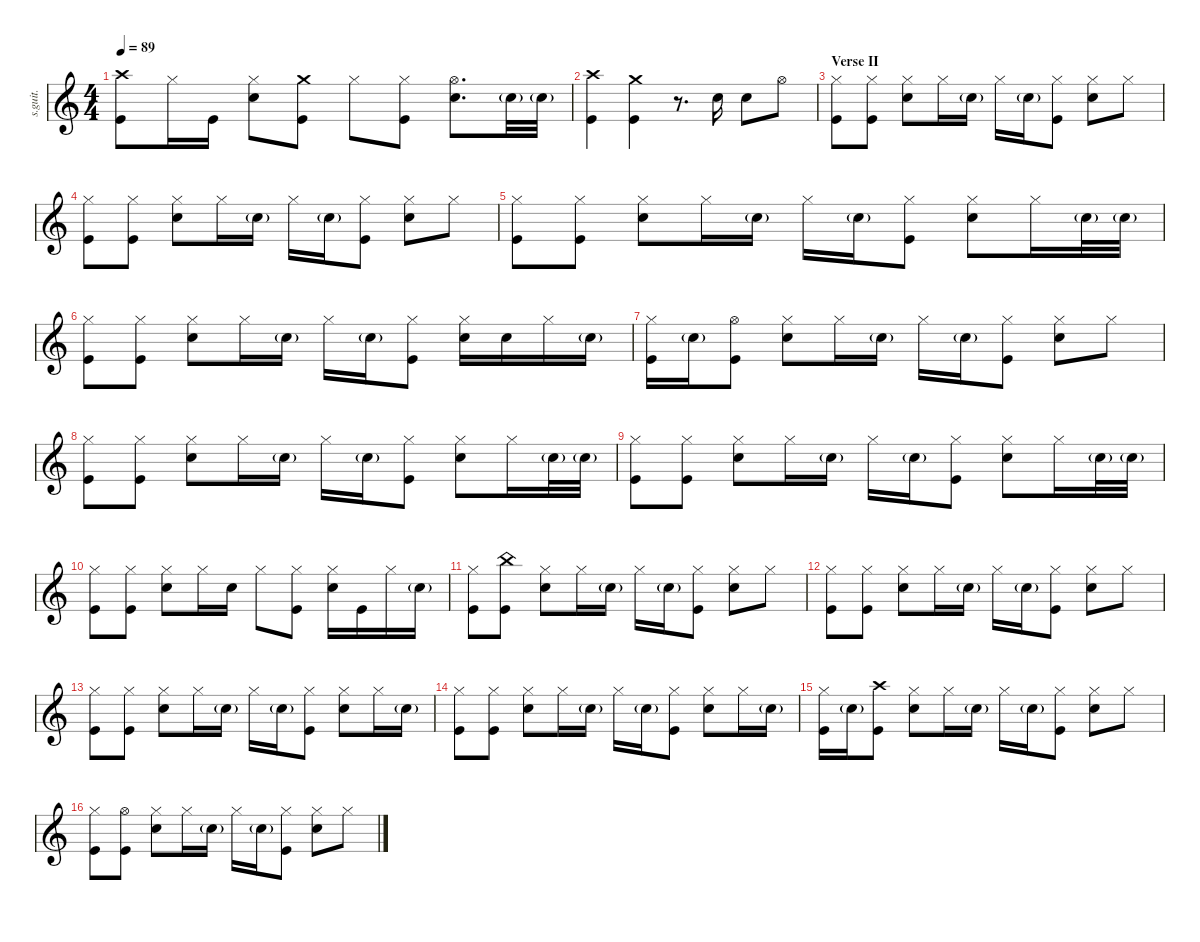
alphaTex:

\defaultSystemsLayout 4
\hideDynamics
\bracketExtendMode nobrackets
\track ("Chad Smith" "s.guit.") {instrument percussion}
\staff {score}
\articulation defaults
\ts (4 4)
\tempo 89
\clef g2
\ks c
("Crash high (hit)" "Kick (hit)").8{lyrics (0 "") lyrics (1 "") lyrics (2 "") lyrics (3 "") lyrics (4 "") dy f} "Hi-Hat (closed)".16{lyrics (0 "") lyrics (1 "") lyrics (2 "") lyrics (3 "") lyrics (4 "")} "Kick (hit)".16{lyrics (0 "") lyrics (1 "") lyrics (2 "") lyrics (3 "") lyrics (4 "")} ("Hi-Hat (closed)" "Snare (hit) 2").8{lyrics (0 "") lyrics (1 "") lyrics (2 "") lyrics (3 "") lyrics (4 "")} ("Crash medium (hit)" "Kick (hit)").8{lyrics (0 "") lyrics (1 "") lyrics (2 "") lyrics (3 "") lyrics (4 "")} "Hi-Hat (closed)".8{lyrics (0 "") lyrics (1 "") lyrics (2 "") lyrics (3 "") lyrics (4 "") dy fff} ("Hi-Hat (closed)" "Kick (hit)").8{lyrics (0 "") lyrics (1 "") lyrics (2 "") lyrics (3 "") lyrics (4 "") dy f} ("Hi-Hat (open)" "Snare (hit) 2").8{d lyrics (0 "") lyrics (1 "") lyrics (2 "") lyrics (3 "") lyrics (4 "")} "Snare (hit) 2"{g}.32{lyrics (0 "") lyrics (1 "") lyrics (2 "") lyrics (3 "") lyrics (4 "") dy ppp} "Snare (hit) 2"{g}.32{lyrics (0 "") lyrics (1 "") lyrics (2 "") lyrics (3 "") lyrics (4 "")} |
("Crash high (hit)" "Kick (hit)").4{lyrics (0 "") lyrics (1 "") lyrics (2 "") lyrics (3 "") lyrics (4 "") dy f} ("Crash medium (hit)" "Kick (hit)").4{lyrics (0 "") lyrics (1 "") lyrics (2 "") lyrics (3 "") lyrics (4 "")} r.8{d} "Snare (hit) 2".16{lyrics (0 "") lyrics (1 "") lyrics (2 "") lyrics (3 "") lyrics (4 "")} "Snare (hit) 2".8{lyrics (0 "") lyrics (1 "") lyrics (2 "") lyrics (3 "") lyrics (4 "")} "Hi-Hat (open)".8{lyrics (0 "") lyrics (1 "") lyrics (2 "") lyrics (3 "") lyrics (4 "")} |
\section ("" "Verse II")
("Hi-Hat (closed)" "Kick (hit)").8{lyrics (0 "") lyrics (1 "") lyrics (2 "") lyrics (3 "") lyrics (4 "")} ("Hi-Hat (closed)" "Kick (hit)").8{lyrics (0 "") lyrics (1 "") lyrics (2 "") lyrics (3 "") lyrics (4 "")} ("Hi-Hat (closed)" "Snare (hit) 2").8{lyrics (0 "") lyrics (1 "") lyrics (2 "") lyrics (3 "") lyrics (4 "")} "Hi-Hat (closed)".16{lyrics (0 "") lyrics (1 "") lyrics (2 "") lyrics (3 "") lyrics (4 "")} "Snare (hit) 2"{g}.16{lyrics (0 "") lyrics (1 "") lyrics (2 "") lyrics (3 "") lyrics (4 "") dy ppp} "Hi-Hat (closed)".16{lyrics (0 "") lyrics (1 "") lyrics (2 "") lyrics (3 "") lyrics (4 "") dy fff} "Snare (hit) 2"{g}.16{lyrics (0 "") lyrics (1 "") lyrics (2 "") lyrics (3 "") lyrics (4 "") dy ppp} ("Hi-Hat (closed)" "Kick (hit)").8{lyrics (0 "") lyrics (1 "") lyrics (2 "") lyrics (3 "") lyrics (4 "") dy f} ("Hi-Hat (closed)" "Snare (hit) 2").8{lyrics (0 "") lyrics (1 "") lyrics (2 "") lyrics (3 "") lyrics (4 "")} "Hi-Hat (closed)".8{lyrics (0 "") lyrics (1 "") lyrics (2 "") lyrics (3 "") lyrics (4 "")} |
("Hi-Hat (closed)" "Kick (hit)").8{lyrics (0 "") lyrics (1 "") lyrics (2 "") lyrics (3 "") lyrics (4 "")} ("Hi-Hat (closed)" "Kick (hit)").8{lyrics (0 "") lyrics (1 "") lyrics (2 "") lyrics (3 "") lyrics (4 "")} ("Hi-Hat (closed)" "Snare (hit) 2").8{lyrics (0 "") lyrics (1 "") lyrics (2 "") lyrics (3 "") lyrics (4 "")} "Hi-Hat (closed)".16{lyrics (0 "") lyrics (1 "") lyrics (2 "") lyrics (3 "") lyrics (4 "")} "Snare (hit) 2"{g}.16{lyrics (0 "") lyrics (1 "") lyrics (2 "") lyrics (3 "") lyrics (4 "") dy ppp} "Hi-Hat (closed)".16{lyrics (0 "") lyrics (1 "") lyrics (2 "") lyrics (3 "") lyrics (4 "") dy fff} "Snare (hit) 2"{g}.16{lyrics (0 "") lyrics (1 "") lyrics (2 "") lyrics (3 "") lyrics (4 "") dy ppp} ("Hi-Hat (closed)" "Kick (hit)").8{lyrics (0 "") lyrics (1 "") lyrics (2 "") lyrics (3 "") lyrics (4 "") dy f} ("Hi-Hat (closed)" "Snare (hit) 2").8{lyrics (0 "") lyrics (1 "") lyrics (2 "") lyrics (3 "") lyrics (4 "")} "Hi-Hat (closed)".8{lyrics (0 "") lyrics (1 "") lyrics (2 "") lyrics (3 "") lyrics (4 "")} |
("Hi-Hat (closed)" "Kick (hit)").8{lyrics (0 "") lyrics (1 "") lyrics (2 "") lyrics (3 "") lyrics (4 "")} ("Hi-Hat (closed)" "Kick (hit)").8{lyrics (0 "") lyrics (1 "") lyrics (2 "") lyrics (3 "") lyrics (4 "")} ("Hi-Hat (closed)" "Snare (hit) 2").8{lyrics (0 "") lyrics (1 "") lyrics (2 "") lyrics (3 "") lyrics (4 "")} "Hi-Hat (closed)".16{lyrics (0 "") lyrics (1 "") lyrics (2 "") lyrics (3 "") lyrics (4 "")} "Snare (hit) 2"{g}.16{lyrics (0 "") lyrics (1 "") lyrics (2 "") lyrics (3 "") lyrics (4 "") dy ppp} "Hi-Hat (closed)".16{lyrics (0 "") lyrics (1 "") lyrics (2 "") lyrics (3 "") lyrics (4 "") dy fff} "Snare (hit) 2"{g}.16{lyrics (0 "") lyrics (1 "") lyrics (2 "") lyrics (3 "") lyrics (4 "") dy ppp} ("Hi-Hat (closed)" "Kick (hit)").8{lyrics (0 "") lyrics (1 "") lyrics (2 "") lyrics (3 "") lyrics (4 "") dy f} ("Hi-Hat (closed)" "Snare (hit) 2").8{lyrics (0 "") lyrics (1 "") lyrics (2 "") lyrics (3 "") lyrics (4 "")} "Hi-Hat (closed)".16{lyrics (0 "") lyrics (1 "") lyrics (2 "") lyrics (3 "") lyrics (4 "")} "Snare (hit) 2"{g}.32{lyrics (0 "") lyrics (1 "") lyrics (2 "") lyrics (3 "") lyrics (4 "") dy ppp} "Snare (hit) 2"{g}.32{lyrics (0 "") lyrics (1 "") lyrics (2 "") lyrics (3 "") lyrics (4 "")} |
("Hi-Hat (closed)" "Kick (hit)").8{lyrics (0 "") lyrics (1 "") lyrics (2 "") lyrics (3 "") lyrics (4 "") dy f} ("Hi-Hat (closed)" "Kick (hit)").8{lyrics (0 "") lyrics (1 "") lyrics (2 "") lyrics (3 "") lyrics (4 "")} ("Hi-Hat (closed)" "Snare (hit) 2").8{lyrics (0 "") lyrics (1 "") lyrics (2 "") lyrics (3 "") lyrics (4 "")} "Hi-Hat (closed)".16{lyrics (0 "") lyrics (1 "") lyrics (2 "") lyrics (3 "") lyrics (4 "")} "Snare (hit) 2"{g}.16{lyrics (0 "") lyrics (1 "") lyrics (2 "") lyrics (3 "") lyrics (4 "") dy ppp} "Hi-Hat (closed)".16{lyrics (0 "") lyrics (1 "") lyrics (2 "") lyrics (3 "") lyrics (4 "") dy fff} "Snare (hit) 2"{g}.16{lyrics (0 "") lyrics (1 "") lyrics (2 "") lyrics (3 "") lyrics (4 "") dy ppp} ("Hi-Hat (closed)" "Kick (hit)").8{lyrics (0 "") lyrics (1 "") lyrics (2 "") lyrics (3 "") lyrics (4 "") dy f} ("Hi-Hat (closed)" "Snare (hit) 2").16{lyrics (0 "") lyrics (1 "") lyrics (2 "") lyrics (3 "") lyrics (4 "")} "Snare (hit) 2".16{lyrics (0 "") lyrics (1 "") lyrics (2 "") lyrics (3 "") lyrics (4 "")} "Hi-Hat (closed)".16{lyrics (0 "") lyrics (1 "") lyrics (2 "") lyrics (3 "") lyrics (4 "")} "Snare (hit) 2"{g}.16{lyrics (0 "") lyrics (1 "") lyrics (2 "") lyrics (3 "") lyrics (4 "") dy ppp} |
("Hi-Hat (closed)" "Kick (hit)").16{lyrics (0 "") lyrics (1 "") lyrics (2 "") lyrics (3 "") lyrics (4 "") dy f} "Snare (hit) 2"{g}.16{lyrics (0 "") lyrics (1 "") lyrics (2 "") lyrics (3 "") lyrics (4 "") dy ppp} ("Hi-Hat (open)" "Kick (hit)").8{lyrics (0 "") lyrics (1 "") lyrics (2 "") lyrics (3 "") lyrics (4 "") dy f} ("Hi-Hat (closed)" "Snare (hit) 2").8{lyrics (0 "") lyrics (1 "") lyrics (2 "") lyrics (3 "") lyrics (4 "")} "Hi-Hat (closed)".16{lyrics (0 "") lyrics (1 "") lyrics (2 "") lyrics (3 "") lyrics (4 "")} "Snare (hit) 2"{g}.16{lyrics (0 "") lyrics (1 "") lyrics (2 "") lyrics (3 "") lyrics (4 "") dy ppp} "Hi-Hat (closed)".16{lyrics (0 "") lyrics (1 "") lyrics (2 "") lyrics (3 "") lyrics (4 "") dy fff} "Snare (hit) 2"{g}.16{lyrics (0 "") lyrics (1 "") lyrics (2 "") lyrics (3 "") lyrics (4 "") dy ppp} ("Hi-Hat (closed)" "Kick (hit)").8{lyrics (0 "") lyrics (1 "") lyrics (2 "") lyrics (3 "") lyrics (4 "") dy f} ("Hi-Hat (closed)" "Snare (hit) 2").8{lyrics (0 "") lyrics (1 "") lyrics (2 "") lyrics (3 "") lyrics (4 "")} "Hi-Hat (closed)".8{lyrics (0 "") lyrics (1 "") lyrics (2 "") lyrics (3 "") lyrics (4 "")} |
("Hi-Hat (closed)" "Kick (hit)").8{lyrics (0 "") lyrics (1 "") lyrics (2 "") lyrics (3 "") lyrics (4 "")} ("Hi-Hat (closed)" "Kick (hit)").8{lyrics (0 "") lyrics (1 "") lyrics (2 "") lyrics (3 "") lyrics (4 "")} ("Hi-Hat (closed)" "Snare (hit) 2").8{lyrics (0 "") lyrics (1 "") lyrics (2 "") lyrics (3 "") lyrics (4 "")} "Hi-Hat (closed)".16{lyrics (0 "") lyrics (1 "") lyrics (2 "") lyrics (3 "") lyrics (4 "")} "Snare (hit) 2"{g}.16{lyrics (0 "") lyrics (1 "") lyrics (2 "") lyrics (3 "") lyrics (4 "") dy ppp} "Hi-Hat (closed)".16{lyrics (0 "") lyrics (1 "") lyrics (2 "") lyrics (3 "") lyrics (4 "") dy fff} "Snare (hit) 2"{g}.16{lyrics (0 "") lyrics (1 "") lyrics (2 "") lyrics (3 "") lyrics (4 "") dy ppp} ("Hi-Hat (closed)" "Kick (hit)").8{lyrics (0 "") lyrics (1 "") lyrics (2 "") lyrics (3 "") lyrics (4 "") dy f} ("Hi-Hat (closed)" "Snare (hit) 2").8{lyrics (0 "") lyrics (1 "") lyrics (2 "") lyrics (3 "") lyrics (4 "")} "Hi-Hat (closed)".16{lyrics (0 "") lyrics (1 "") lyrics (2 "") lyrics (3 "") lyrics (4 "")} "Snare (hit) 2"{g}.32{lyrics (0 "") lyrics (1 "") lyrics (2 "") lyrics (3 "") lyrics (4 "") dy ppp} "Snare (hit) 2"{g}.32{lyrics (0 "") lyrics (1 "") lyrics (2 "") lyrics (3 "") lyrics (4 "")} |
("Hi-Hat (closed)" "Kick (hit)").8{lyrics (0 "") lyrics (1 "") lyrics (2 "") lyrics (3 "") lyrics (4 "") dy f} ("Hi-Hat (closed)" "Kick (hit)").8{lyrics (0 "") lyrics (1 "") lyrics (2 "") lyrics (3 "") lyrics (4 "")} ("Hi-Hat (closed)" "Snare (hit) 2").8{lyrics (0 "") lyrics (1 "") lyrics (2 "") lyrics (3 "") lyrics (4 "")} "Hi-Hat (closed)".16{lyrics (0 "") lyrics (1 "") lyrics (2 "") lyrics (3 "") lyrics (4 "")} "Snare (hit) 2"{g}.16{lyrics (0 "") lyrics (1 "") lyrics (2 "") lyrics (3 "") lyrics (4 "") dy ppp} "Hi-Hat (closed)".16{lyrics (0 "") lyrics (1 "") lyrics (2 "") lyrics (3 "") lyrics (4 "") dy fff} "Snare (hit) 2"{g}.16{lyrics (0 "") lyrics (1 "") lyrics (2 "") lyrics (3 "") lyrics (4 "") dy ppp} ("Hi-Hat (closed)" "Kick (hit)").8{lyrics (0 "") lyrics (1 "") lyrics (2 "") lyrics (3 "") lyrics (4 "") dy f} ("Hi-Hat (closed)" "Snare (hit) 2").8{lyrics (0 "") lyrics (1 "") lyrics (2 "") lyrics (3 "") lyrics (4 "")} "Hi-Hat (closed)".16{lyrics (0 "") lyrics (1 "") lyrics (2 "") lyrics (3 "") lyrics (4 "")} "Snare (hit) 2"{g}.32{lyrics (0 "") lyrics (1 "") lyrics (2 "") lyrics (3 "") lyrics (4 "") dy ppp} "Snare (hit) 2"{g}.32{lyrics (0 "") lyrics (1 "") lyrics (2 "") lyrics (3 "") lyrics (4 "")} |
("Hi-Hat (closed)" "Kick (hit)").8{lyrics (0 "") lyrics (1 "") lyrics (2 "") lyrics (3 "") lyrics (4 "") dy f} ("Hi-Hat (closed)" "Kick (hit)").8{lyrics (0 "") lyrics (1 "") lyrics (2 "") lyrics (3 "") lyrics (4 "")} ("Hi-Hat (closed)" "Snare (hit) 2").8{lyrics (0 "") lyrics (1 "") lyrics (2 "") lyrics (3 "") lyrics (4 "")} "Hi-Hat (closed)".16{lyrics (0 "") lyrics (1 "") lyrics (2 "") lyrics (3 "") lyrics (4 "")} "Snare (hit) 2".16{lyrics (0 "") lyrics (1 "") lyrics (2 "") lyrics (3 "") lyrics (4 "")} "Hi-Hat (closed)".8{lyrics (0 "") lyrics (1 "") lyrics (2 "") lyrics (3 "") lyrics (4 "") dy fff} ("Hi-Hat (closed)" "Kick (hit)").8{lyrics (0 "") lyrics (1 "") lyrics (2 "") lyrics (3 "") lyrics (4 "") dy f} ("Hi-Hat (closed)" "Snare (hit) 2").16{lyrics (0 "") lyrics (1 "") lyrics (2 "") lyrics (3 "") lyrics (4 "")} "Kick (hit)".16{lyrics (0 "") lyrics (1 "") lyrics (2 "") lyrics (3 "") lyrics (4 "")} "Hi-Hat (closed)".16{lyrics (0 "") lyrics (1 "") lyrics (2 "") lyrics (3 "") lyrics (4 "")} "Snare (hit) 2"{g}.16{lyrics (0 "") lyrics (1 "") lyrics (2 "") lyrics (3 "") lyrics (4 "") dy ppp} |
("Hi-Hat (closed)" "Kick (hit)").8{lyrics (0 "") lyrics (1 "") lyrics (2 "") lyrics (3 "") lyrics (4 "") dy f} ("China (hit)" "Kick (hit)").8{lyrics (0 "") lyrics (1 "") lyrics (2 "") lyrics (3 "") lyrics (4 "")} ("Hi-Hat (closed)" "Snare (hit) 2").8{lyrics (0 "") lyrics (1 "") lyrics (2 "") lyrics (3 "") lyrics (4 "")} "Hi-Hat (closed)".16{lyrics (0 "") lyrics (1 "") lyrics (2 "") lyrics (3 "") lyrics (4 "")} "Snare (hit) 2"{g}.16{lyrics (0 "") lyrics (1 "") lyrics (2 "") lyrics (3 "") lyrics (4 "") dy ppp} "Hi-Hat (closed)".16{lyrics (0 "") lyrics (1 "") lyrics (2 "") lyrics (3 "") lyrics (4 "") dy fff} "Snare (hit) 2"{g}.16{lyrics (0 "") lyrics (1 "") lyrics (2 "") lyrics (3 "") lyrics (4 "") dy ppp} ("Hi-Hat (closed)" "Kick (hit)").8{lyrics (0 "") lyrics (1 "") lyrics (2 "") lyrics (3 "") lyrics (4 "") dy f} ("Hi-Hat (closed)" "Snare (hit) 2").8{lyrics (0 "") lyrics (1 "") lyrics (2 "") lyrics (3 "") lyrics (4 "")} "Hi-Hat (closed)".8{lyrics (0 "") lyrics (1 "") lyrics (2 "") lyrics (3 "") lyrics (4 "")} |
("Hi-Hat (closed)" "Kick (hit)").8{lyrics (0 "") lyrics (1 "") lyrics (2 "") lyrics (3 "") lyrics (4 "")} ("Hi-Hat (closed)" "Kick (hit)").8{lyrics (0 "") lyrics (1 "") lyrics (2 "") lyrics (3 "") lyrics (4 "")} ("Hi-Hat (closed)" "Snare (hit) 2").8{lyrics (0 "") lyrics (1 "") lyrics (2 "") lyrics (3 "") lyrics (4 "")} "Hi-Hat (closed)".16{lyrics (0 "") lyrics (1 "") lyrics (2 "") lyrics (3 "") lyrics (4 "")} "Snare (hit) 2"{g}.16{lyrics (0 "") lyrics (1 "") lyrics (2 "") lyrics (3 "") lyrics (4 "") dy ppp} "Hi-Hat (closed)".16{lyrics (0 "") lyrics (1 "") lyrics (2 "") lyrics (3 "") lyrics (4 "") dy fff} "Snare (hit) 2"{g}.16{lyrics (0 "") lyrics (1 "") lyrics (2 "") lyrics (3 "") lyrics (4 "") dy ppp} ("Hi-Hat (closed)" "Kick (hit)").8{lyrics (0 "") lyrics (1 "") lyrics (2 "") lyrics (3 "") lyrics (4 "") dy f} ("Hi-Hat (closed)" "Snare (hit) 2").8{lyrics (0 "") lyrics (1 "") lyrics (2 "") lyrics (3 "") lyrics (4 "")} "Hi-Hat (closed)".8{lyrics (0 "") lyrics (1 "") lyrics (2 "") lyrics (3 "") lyrics (4 "")} |
("Hi-Hat (closed)" "Kick (hit)").8{lyrics (0 "") lyrics (1 "") lyrics (2 "") lyrics (3 "") lyrics (4 "")} ("Hi-Hat (closed)" "Kick (hit)").8{lyrics (0 "") lyrics (1 "") lyrics (2 "") lyrics (3 "") lyrics (4 "")} ("Hi-Hat (closed)" "Snare (hit) 2").8{lyrics (0 "") lyrics (1 "") lyrics (2 "") lyrics (3 "") lyrics (4 "")} "Hi-Hat (closed)".16{lyrics (0 "") lyrics (1 "") lyrics (2 "") lyrics (3 "") lyrics (4 "")} "Snare (hit) 2"{g}.16{lyrics (0 "") lyrics (1 "") lyrics (2 "") lyrics (3 "") lyrics (4 "") dy ppp} "Hi-Hat (closed)".16{lyrics (0 "") lyrics (1 "") lyrics (2 "") lyrics (3 "") lyrics (4 "") dy fff} "Snare (hit) 2"{g}.16{lyrics (0 "") lyrics (1 "") lyrics (2 "") lyrics (3 "") lyrics (4 "") dy ppp} ("Hi-Hat (closed)" "Kick (hit)").8{lyrics (0 "") lyrics (1 "") lyrics (2 "") lyrics (3 "") lyrics (4 "") dy f} ("Hi-Hat (closed)" "Snare (hit) 2").8{lyrics (0 "") lyrics (1 "") lyrics (2 "") lyrics (3 "") lyrics (4 "")} "Hi-Hat (closed)".16{lyrics (0 "") lyrics (1 "") lyrics (2 "") lyrics (3 "") lyrics (4 "")} "Snare (hit) 2"{g}.16{lyrics (0 "") lyrics (1 "") lyrics (2 "") lyrics (3 "") lyrics (4 "") dy ppp} |
("Hi-Hat (closed)" "Kick (hit)").8{lyrics (0 "") lyrics (1 "") lyrics (2 "") lyrics (3 "") lyrics (4 "") dy f} ("Hi-Hat (closed)" "Kick (hit)").8{lyrics (0 "") lyrics (1 "") lyrics (2 "") lyrics (3 "") lyrics (4 "")} ("Hi-Hat (closed)" "Snare (hit) 2").8{lyrics (0 "") lyrics (1 "") lyrics (2 "") lyrics (3 "") lyrics (4 "")} "Hi-Hat (closed)".16{lyrics (0 "") lyrics (1 "") lyrics (2 "") lyrics (3 "") lyrics (4 "")} "Snare (hit) 2"{g}.16{lyrics (0 "") lyrics (1 "") lyrics (2 "") lyrics (3 "") lyrics (4 "") dy ppp} "Hi-Hat (closed)".16{lyrics (0 "") lyrics (1 "") lyrics (2 "") lyrics (3 "") lyrics (4 "") dy fff} "Snare (hit) 2"{g}.16{lyrics (0 "") lyrics (1 "") lyrics (2 "") lyrics (3 "") lyrics (4 "") dy ppp} ("Hi-Hat (closed)" "Kick (hit)").8{lyrics (0 "") lyrics (1 "") lyrics (2 "") lyrics (3 "") lyrics (4 "") dy f} ("Hi-Hat (closed)" "Snare (hit) 2").8{lyrics (0 "") lyrics (1 "") lyrics (2 "") lyrics (3 "") lyrics (4 "")} "Hi-Hat (closed)".16{lyrics (0 "") lyrics (1 "") lyrics (2 "") lyrics (3 "") lyrics (4 "")} "Snare (hit) 2"{g}.16{lyrics (0 "") lyrics (1 "") lyrics (2 "") lyrics (3 "") lyrics (4 "") dy ppp} |
("Hi-Hat (closed)" "Kick (hit)").16{lyrics (0 "") lyrics (1 "") lyrics (2 "") lyrics (3 "") lyrics (4 "") dy f} "Snare (hit) 2"{g}.16{lyrics (0 "") lyrics (1 "") lyrics (2 "") lyrics (3 "") lyrics (4 "") dy ppp} ("Crash high (hit)" "Kick (hit)").8{lyrics (0 "") lyrics (1 "") lyrics (2 "") lyrics (3 "") lyrics (4 "") dy f} ("Hi-Hat (closed)" "Snare (hit) 2").8{lyrics (0 "") lyrics (1 "") lyrics (2 "") lyrics (3 "") lyrics (4 "")} "Hi-Hat (closed)".16{lyrics (0 "") lyrics (1 "") lyrics (2 "") lyrics (3 "") lyrics (4 "")} "Snare (hit) 2"{g}.16{lyrics (0 "") lyrics (1 "") lyrics (2 "") lyrics (3 "") lyrics (4 "") dy ppp} "Hi-Hat (closed)".16{lyrics (0 "") lyrics (1 "") lyrics (2 "") lyrics (3 "") lyrics (4 "") dy fff} "Snare (hit) 2"{g}.16{lyrics (0 "") lyrics (1 "") lyrics (2 "") lyrics (3 "") lyrics (4 "") dy ppp} ("Hi-Hat (closed)" "Kick (hit)").8{lyrics (0 "") lyrics (1 "") lyrics (2 "") lyrics (3 "") lyrics (4 "") dy f} ("Hi-Hat (closed)" "Snare (hit) 2").8{lyrics (0 "") lyrics (1 "") lyrics (2 "") lyrics (3 "") lyrics (4 "")} "Hi-Hat (closed)".8{lyrics (0 "") lyrics (1 "") lyrics (2 "") lyrics (3 "") lyrics (4 "")} |
("Hi-Hat (closed)" "Kick (hit)").8{lyrics (0 "") lyrics (1 "") lyrics (2 "") lyrics (3 "") lyrics (4 "")} ("Hi-Hat (open)" "Kick (hit)").8{lyrics (0 "") lyrics (1 "") lyrics (2 "") lyrics (3 "") lyrics (4 "")} ("Hi-Hat (closed)" "Snare (hit) 2").8{lyrics (0 "") lyrics (1 "") lyrics (2 "") lyrics (3 "") lyrics (4 "")} "Hi-Hat (closed)".16{lyrics (0 "") lyrics (1 "") lyrics (2 "") lyrics (3 "") lyrics (4 "")} "Snare (hit) 2"{g}.16{lyrics (0 "") lyrics (1 "") lyrics (2 "") lyrics (3 "") lyrics (4 "") dy ppp} "Hi-Hat (closed)".16{lyrics (0 "") lyrics (1 "") lyrics (2 "") lyrics (3 "") lyrics (4 "") dy fff} "Snare (hit) 2"{g}.16{lyrics (0 "") lyrics (1 "") lyrics (2 "") lyrics (3 "") lyrics (4 "") dy ppp} ("Hi-Hat (closed)" "Kick (hit)").8{lyrics (0 "") lyrics (1 "") lyrics (2 "") lyrics (3 "") lyrics (4 "") dy f} ("Hi-Hat (closed)" "Snare (hit) 2").8{lyrics (0 "") lyrics (1 "") lyrics (2 "") lyrics (3 "") lyrics (4 "")} "Hi-Hat (closed)".8{lyrics (0 "") lyrics (1 "") lyrics (2 "") lyrics (3 "") lyrics (4 "")}
